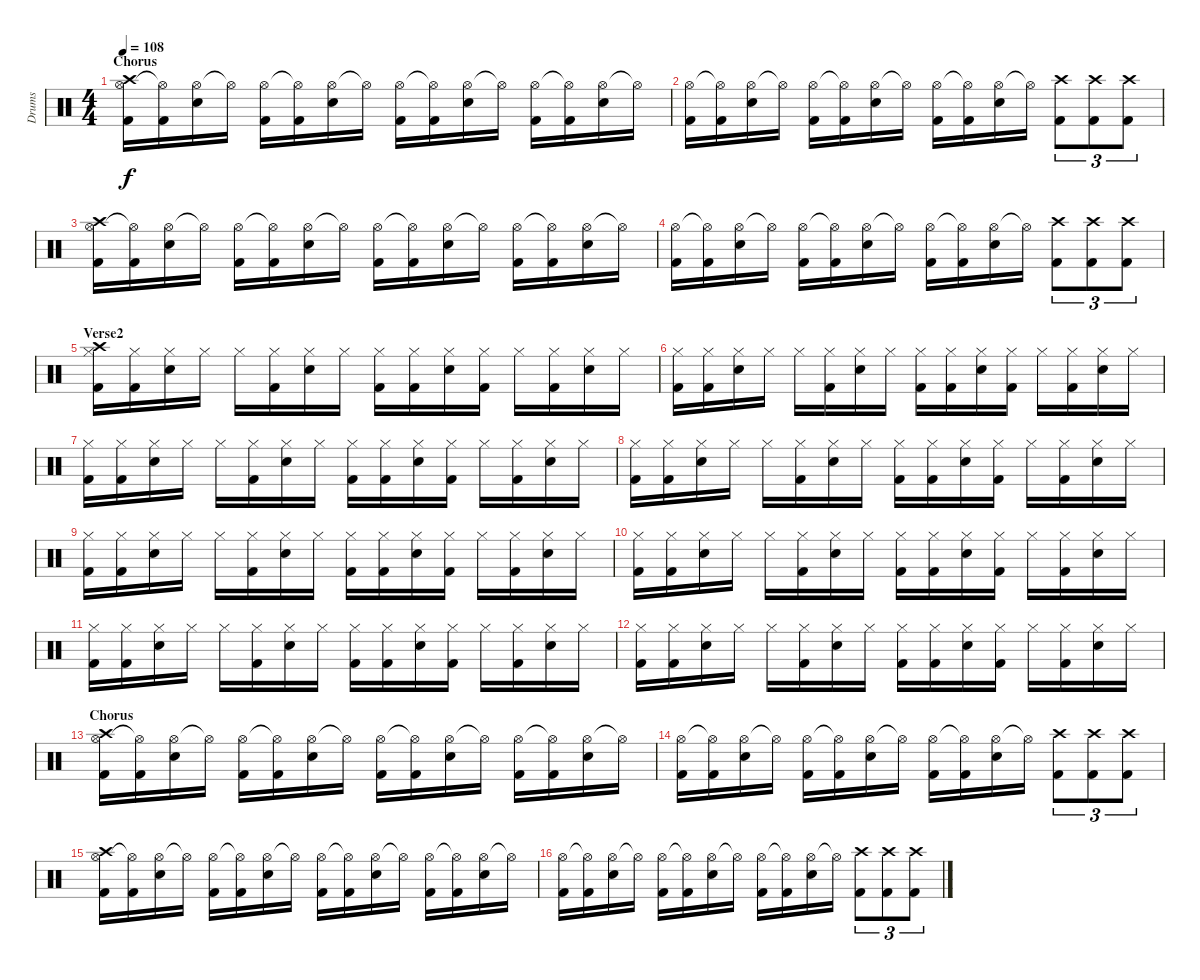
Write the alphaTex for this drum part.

\track ("Drums" "Drums") {instrument percussion}
\staff {score}
\articulation defaults
\ts (4 4)
\section ("" "Chorus")
\tempo 108
\clef neutral
\ks c
("Hi-Hat (open)" "Kick (hit) 2" "Crash high (hit)").16{dy f} ("Hi-Hat (open)"{t} "Kick (hit) 2").16 ("Hi-Hat (open)" "Electric Snare (hit)").16 "Hi-Hat (open)"{t}.16 ("Hi-Hat (open)" "Kick (hit) 2").16 ("Hi-Hat (open)"{t} "Kick (hit) 2").16 ("Hi-Hat (open)" "Electric Snare (hit)").16 "Hi-Hat (open)"{t}.16 ("Hi-Hat (open)" "Kick (hit) 2").16 ("Hi-Hat (open)"{t} "Kick (hit) 2").16 ("Hi-Hat (open)" "Electric Snare (hit)").16 "Hi-Hat (open)"{t}.16 ("Hi-Hat (open)" "Kick (hit) 2").16 ("Hi-Hat (open)"{t} "Kick (hit) 2").16 ("Hi-Hat (open)" "Electric Snare (hit)").16 "Hi-Hat (open)"{t}.16 |
("Hi-Hat (open)" "Kick (hit) 2").16 ("Hi-Hat (open)"{t} "Kick (hit) 2").16 ("Hi-Hat (open)" "Electric Snare (hit)").16 "Hi-Hat (open)"{t}.16 ("Hi-Hat (open)" "Kick (hit) 2").16 ("Hi-Hat (open)"{t} "Kick (hit) 2").16 ("Hi-Hat (open)" "Electric Snare (hit)").16 "Hi-Hat (open)"{t}.16 ("Hi-Hat (open)" "Kick (hit) 2").16 ("Hi-Hat (open)"{t} "Kick (hit) 2").16 ("Hi-Hat (open)" "Electric Snare (hit)").16 "Hi-Hat (open)"{t}.16 ("Kick (hit) 2" "Crash high (hit)").8{tu (3 2)} ("Kick (hit) 2" "Crash high (hit)").8{tu (3 2)} ("Kick (hit) 2" "Crash high (hit)").8{tu (3 2)} |
("Hi-Hat (open)" "Kick (hit) 2" "Crash high (hit)").16 ("Hi-Hat (open)"{t} "Kick (hit) 2").16 ("Hi-Hat (open)" "Electric Snare (hit)").16 "Hi-Hat (open)"{t}.16 ("Hi-Hat (open)" "Kick (hit) 2").16 ("Hi-Hat (open)"{t} "Kick (hit) 2").16 ("Hi-Hat (open)" "Electric Snare (hit)").16 "Hi-Hat (open)"{t}.16 ("Hi-Hat (open)" "Kick (hit) 2").16 ("Hi-Hat (open)"{t} "Kick (hit) 2").16 ("Hi-Hat (open)" "Electric Snare (hit)").16 "Hi-Hat (open)"{t}.16 ("Hi-Hat (open)" "Kick (hit) 2").16 ("Hi-Hat (open)"{t} "Kick (hit) 2").16 ("Hi-Hat (open)" "Electric Snare (hit)").16 "Hi-Hat (open)"{t}.16 |
("Hi-Hat (open)" "Kick (hit) 2").16 ("Hi-Hat (open)"{t} "Kick (hit) 2").16 ("Hi-Hat (open)" "Electric Snare (hit)").16 "Hi-Hat (open)"{t}.16 ("Hi-Hat (open)" "Kick (hit) 2").16 ("Hi-Hat (open)"{t} "Kick (hit) 2").16 ("Hi-Hat (open)" "Electric Snare (hit)").16 "Hi-Hat (open)"{t}.16 ("Hi-Hat (open)" "Kick (hit) 2").16 ("Hi-Hat (open)"{t} "Kick (hit) 2").16 ("Hi-Hat (open)" "Electric Snare (hit)").16 "Hi-Hat (open)"{t}.16 ("Kick (hit) 2" "Crash high (hit)").8{tu (3 2)} ("Kick (hit) 2" "Crash high (hit)").8{tu (3 2)} ("Kick (hit) 2" "Crash high (hit)").8{tu (3 2)} |
\section ("" "Verse2")
("Hi-Hat (closed)" "Kick (hit) 2" "Crash high (hit)").16 ("Hi-Hat (closed)" "Kick (hit) 2").16 ("Hi-Hat (closed)" "Electric Snare (hit)").16 "Hi-Hat (closed)".16 "Hi-Hat (closed)".16 ("Hi-Hat (closed)" "Kick (hit) 2").16 ("Hi-Hat (closed)" "Electric Snare (hit)").16 "Hi-Hat (closed)".16 ("Hi-Hat (closed)" "Kick (hit) 2").16 ("Hi-Hat (closed)" "Kick (hit) 2").16 ("Hi-Hat (closed)" "Electric Snare (hit)").16 ("Hi-Hat (closed)" "Kick (hit) 2").16 "Hi-Hat (closed)".16 ("Hi-Hat (closed)" "Kick (hit) 2").16 ("Hi-Hat (closed)" "Electric Snare (hit)").16 "Hi-Hat (closed)".16 |
("Hi-Hat (closed)" "Kick (hit) 2").16 ("Hi-Hat (closed)" "Kick (hit) 2").16 ("Hi-Hat (closed)" "Electric Snare (hit)").16 "Hi-Hat (closed)".16 "Hi-Hat (closed)".16 ("Hi-Hat (closed)" "Kick (hit) 2").16 ("Hi-Hat (closed)" "Electric Snare (hit)").16 "Hi-Hat (closed)".16 ("Hi-Hat (closed)" "Kick (hit) 2").16 ("Hi-Hat (closed)" "Kick (hit) 2").16 ("Hi-Hat (closed)" "Electric Snare (hit)").16 ("Hi-Hat (closed)" "Kick (hit) 2").16 "Hi-Hat (closed)".16 ("Hi-Hat (closed)" "Kick (hit) 2").16 ("Hi-Hat (closed)" "Electric Snare (hit)").16 "Hi-Hat (closed)".16 |
("Hi-Hat (closed)" "Kick (hit) 2").16 ("Hi-Hat (closed)" "Kick (hit) 2").16 ("Hi-Hat (closed)" "Electric Snare (hit)").16 "Hi-Hat (closed)".16 "Hi-Hat (closed)".16 ("Hi-Hat (closed)" "Kick (hit) 2").16 ("Hi-Hat (closed)" "Electric Snare (hit)").16 "Hi-Hat (closed)".16 ("Hi-Hat (closed)" "Kick (hit) 2").16 ("Hi-Hat (closed)" "Kick (hit) 2").16 ("Hi-Hat (closed)" "Electric Snare (hit)").16 ("Hi-Hat (closed)" "Kick (hit) 2").16 "Hi-Hat (closed)".16 ("Hi-Hat (closed)" "Kick (hit) 2").16 ("Hi-Hat (closed)" "Electric Snare (hit)").16 "Hi-Hat (closed)".16 |
("Hi-Hat (closed)" "Kick (hit) 2").16 ("Hi-Hat (closed)" "Kick (hit) 2").16 ("Hi-Hat (closed)" "Electric Snare (hit)").16 "Hi-Hat (closed)".16 "Hi-Hat (closed)".16 ("Hi-Hat (closed)" "Kick (hit) 2").16 ("Hi-Hat (closed)" "Electric Snare (hit)").16 "Hi-Hat (closed)".16 ("Hi-Hat (closed)" "Kick (hit) 2").16 ("Hi-Hat (closed)" "Kick (hit) 2").16 ("Hi-Hat (closed)" "Electric Snare (hit)").16 ("Hi-Hat (closed)" "Kick (hit) 2").16 "Hi-Hat (closed)".16 ("Hi-Hat (closed)" "Kick (hit) 2").16 ("Hi-Hat (closed)" "Electric Snare (hit)").16 "Hi-Hat (closed)".16 |
("Hi-Hat (closed)" "Kick (hit) 2").16 ("Hi-Hat (closed)" "Kick (hit) 2").16 ("Hi-Hat (closed)" "Electric Snare (hit)").16 "Hi-Hat (closed)".16 "Hi-Hat (closed)".16 ("Hi-Hat (closed)" "Kick (hit) 2").16 ("Hi-Hat (closed)" "Electric Snare (hit)").16 "Hi-Hat (closed)".16 ("Hi-Hat (closed)" "Kick (hit) 2").16 ("Hi-Hat (closed)" "Kick (hit) 2").16 ("Hi-Hat (closed)" "Electric Snare (hit)").16 ("Hi-Hat (closed)" "Kick (hit) 2").16 "Hi-Hat (closed)".16 ("Hi-Hat (closed)" "Kick (hit) 2").16 ("Hi-Hat (closed)" "Electric Snare (hit)").16 "Hi-Hat (closed)".16 |
("Hi-Hat (closed)" "Kick (hit) 2").16 ("Hi-Hat (closed)" "Kick (hit) 2").16 ("Hi-Hat (closed)" "Electric Snare (hit)").16 "Hi-Hat (closed)".16 "Hi-Hat (closed)".16 ("Hi-Hat (closed)" "Kick (hit) 2").16 ("Hi-Hat (closed)" "Electric Snare (hit)").16 "Hi-Hat (closed)".16 ("Hi-Hat (closed)" "Kick (hit) 2").16 ("Hi-Hat (closed)" "Kick (hit) 2").16 ("Hi-Hat (closed)" "Electric Snare (hit)").16 ("Hi-Hat (closed)" "Kick (hit) 2").16 "Hi-Hat (closed)".16 ("Hi-Hat (closed)" "Kick (hit) 2").16 ("Hi-Hat (closed)" "Electric Snare (hit)").16 "Hi-Hat (closed)".16 |
("Hi-Hat (closed)" "Kick (hit) 2").16 ("Hi-Hat (closed)" "Kick (hit) 2").16 ("Hi-Hat (closed)" "Electric Snare (hit)").16 "Hi-Hat (closed)".16 "Hi-Hat (closed)".16 ("Hi-Hat (closed)" "Kick (hit) 2").16 ("Hi-Hat (closed)" "Electric Snare (hit)").16 "Hi-Hat (closed)".16 ("Hi-Hat (closed)" "Kick (hit) 2").16 ("Hi-Hat (closed)" "Kick (hit) 2").16 ("Hi-Hat (closed)" "Electric Snare (hit)").16 ("Hi-Hat (closed)" "Kick (hit) 2").16 "Hi-Hat (closed)".16 ("Hi-Hat (closed)" "Kick (hit) 2").16 ("Hi-Hat (closed)" "Electric Snare (hit)").16 "Hi-Hat (closed)".16 |
("Hi-Hat (closed)" "Kick (hit) 2").16 ("Hi-Hat (closed)" "Kick (hit) 2").16 ("Hi-Hat (closed)" "Electric Snare (hit)").16 "Hi-Hat (closed)".16 "Hi-Hat (closed)".16 ("Hi-Hat (closed)" "Kick (hit) 2").16 ("Hi-Hat (closed)" "Electric Snare (hit)").16 "Hi-Hat (closed)".16 ("Hi-Hat (closed)" "Kick (hit) 2").16 ("Hi-Hat (closed)" "Kick (hit) 2").16 ("Hi-Hat (closed)" "Electric Snare (hit)").16 ("Hi-Hat (closed)" "Kick (hit) 2").16 "Hi-Hat (closed)".16 ("Hi-Hat (closed)" "Kick (hit) 2").16 ("Hi-Hat (closed)" "Electric Snare (hit)").16 "Hi-Hat (closed)".16 |
\section ("" "Chorus")
("Hi-Hat (open)" "Kick (hit) 2" "Crash high (hit)").16 ("Hi-Hat (open)"{t} "Kick (hit) 2").16 ("Hi-Hat (open)" "Electric Snare (hit)").16 "Hi-Hat (open)"{t}.16 ("Hi-Hat (open)" "Kick (hit) 2").16 ("Hi-Hat (open)"{t} "Kick (hit) 2").16 ("Hi-Hat (open)" "Electric Snare (hit)").16 "Hi-Hat (open)"{t}.16 ("Hi-Hat (open)" "Kick (hit) 2").16 ("Hi-Hat (open)"{t} "Kick (hit) 2").16 ("Hi-Hat (open)" "Electric Snare (hit)").16 "Hi-Hat (open)"{t}.16 ("Hi-Hat (open)" "Kick (hit) 2").16 ("Hi-Hat (open)"{t} "Kick (hit) 2").16 ("Hi-Hat (open)" "Electric Snare (hit)").16 "Hi-Hat (open)"{t}.16 |
("Hi-Hat (open)" "Kick (hit) 2").16 ("Hi-Hat (open)"{t} "Kick (hit) 2").16 ("Hi-Hat (open)" "Electric Snare (hit)").16 "Hi-Hat (open)"{t}.16 ("Hi-Hat (open)" "Kick (hit) 2").16 ("Hi-Hat (open)"{t} "Kick (hit) 2").16 ("Hi-Hat (open)" "Electric Snare (hit)").16 "Hi-Hat (open)"{t}.16 ("Hi-Hat (open)" "Kick (hit) 2").16 ("Hi-Hat (open)"{t} "Kick (hit) 2").16 ("Hi-Hat (open)" "Electric Snare (hit)").16 "Hi-Hat (open)"{t}.16 ("Kick (hit) 2" "Crash high (hit)").8{tu (3 2)} ("Kick (hit) 2" "Crash high (hit)").8{tu (3 2)} ("Kick (hit) 2" "Crash high (hit)").8{tu (3 2)} |
("Hi-Hat (open)" "Kick (hit) 2" "Crash high (hit)").16 ("Hi-Hat (open)"{t} "Kick (hit) 2").16 ("Hi-Hat (open)" "Electric Snare (hit)").16 "Hi-Hat (open)"{t}.16 ("Hi-Hat (open)" "Kick (hit) 2").16 ("Hi-Hat (open)"{t} "Kick (hit) 2").16 ("Hi-Hat (open)" "Electric Snare (hit)").16 "Hi-Hat (open)"{t}.16 ("Hi-Hat (open)" "Kick (hit) 2").16 ("Hi-Hat (open)"{t} "Kick (hit) 2").16 ("Hi-Hat (open)" "Electric Snare (hit)").16 "Hi-Hat (open)"{t}.16 ("Hi-Hat (open)" "Kick (hit) 2").16 ("Hi-Hat (open)"{t} "Kick (hit) 2").16 ("Hi-Hat (open)" "Electric Snare (hit)").16 "Hi-Hat (open)"{t}.16 |
("Hi-Hat (open)" "Kick (hit) 2").16 ("Hi-Hat (open)"{t} "Kick (hit) 2").16 ("Hi-Hat (open)" "Electric Snare (hit)").16 "Hi-Hat (open)"{t}.16 ("Hi-Hat (open)" "Kick (hit) 2").16 ("Hi-Hat (open)"{t} "Kick (hit) 2").16 ("Hi-Hat (open)" "Electric Snare (hit)").16 "Hi-Hat (open)"{t}.16 ("Hi-Hat (open)" "Kick (hit) 2").16 ("Hi-Hat (open)"{t} "Kick (hit) 2").16 ("Hi-Hat (open)" "Electric Snare (hit)").16 "Hi-Hat (open)"{t}.16 ("Kick (hit) 2" "Crash high (hit)").8{tu (3 2)} ("Kick (hit) 2" "Crash high (hit)").8{tu (3 2)} ("Kick (hit) 2" "Crash high (hit)").8{tu (3 2)}
